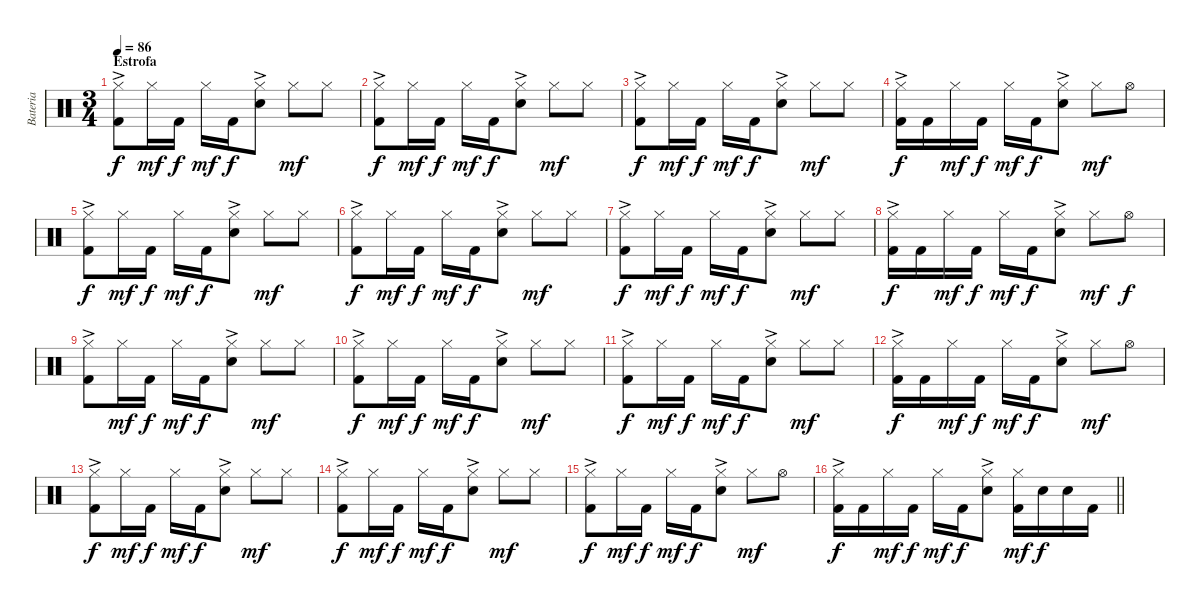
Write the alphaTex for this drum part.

\track ("Bateria" "Bateria") {instrument percussion}
\staff {score}
\articulation defaults
\ts (3 4)
\section ("" "Estrofa")
\tempo 86
\clef neutral
\ks c
("Hi-Hat (closed)"{ac} "Kick (hit) 2").8{dy f} "Hi-Hat (closed)".16{dy mf} "Kick (hit) 2".16{dy f} "Hi-Hat (closed)".16{dy mf} "Kick (hit) 2".16{dy f} ("Hi-Hat (closed)"{ac} "Snare (hit) 2").8 "Hi-Hat (closed)".8{dy mf} "Hi-Hat (closed)".8 |
("Hi-Hat (closed)"{ac} "Kick (hit) 2").8{dy f} "Hi-Hat (closed)".16{dy mf} "Kick (hit) 2".16{dy f} "Hi-Hat (closed)".16{dy mf} "Kick (hit) 2".16{dy f} ("Hi-Hat (closed)"{ac} "Snare (hit) 2").8 "Hi-Hat (closed)".8{dy mf} "Hi-Hat (closed)".8 |
("Hi-Hat (closed)"{ac} "Kick (hit) 2").8{dy f} "Hi-Hat (closed)".16{dy mf} "Kick (hit) 2".16{dy f} "Hi-Hat (closed)".16{dy mf} "Kick (hit) 2".16{dy f} ("Hi-Hat (closed)"{ac} "Snare (hit) 2").8 "Hi-Hat (closed)".8{dy mf} "Hi-Hat (closed)".8 |
("Hi-Hat (closed)"{ac} "Kick (hit) 2").16{dy f} "Kick (hit) 2".16 "Hi-Hat (closed)".16{dy mf} "Kick (hit) 2".16{dy f} "Hi-Hat (closed)".16{dy mf} "Kick (hit) 2".16{dy f} ("Hi-Hat (closed)"{ac} "Snare (hit) 2").8 "Hi-Hat (closed)".8{dy mf} "Hi-Hat (open)".8 |
("Hi-Hat (closed)"{ac} "Kick (hit) 2").8{dy f} "Hi-Hat (closed)".16{dy mf} "Kick (hit) 2".16{dy f} "Hi-Hat (closed)".16{dy mf} "Kick (hit) 2".16{dy f} ("Hi-Hat (closed)"{ac} "Snare (hit) 2").8 "Hi-Hat (closed)".8{dy mf} "Hi-Hat (closed)".8 |
("Hi-Hat (closed)"{ac} "Kick (hit) 2").8{dy f} "Hi-Hat (closed)".16{dy mf} "Kick (hit) 2".16{dy f} "Hi-Hat (closed)".16{dy mf} "Kick (hit) 2".16{dy f} ("Hi-Hat (closed)"{ac} "Snare (hit) 2").8 "Hi-Hat (closed)".8{dy mf} "Hi-Hat (closed)".8 |
("Hi-Hat (closed)"{ac} "Kick (hit) 2").8{dy f} "Hi-Hat (closed)".16{dy mf} "Kick (hit) 2".16{dy f} "Hi-Hat (closed)".16{dy mf} "Kick (hit) 2".16{dy f} ("Hi-Hat (closed)"{ac} "Snare (hit) 2").8 "Hi-Hat (closed)".8{dy mf} "Hi-Hat (closed)".8 |
("Hi-Hat (closed)"{ac} "Kick (hit) 2").16{dy f} "Kick (hit) 2".16 "Hi-Hat (closed)".16{dy mf} "Kick (hit) 2".16{dy f} "Hi-Hat (closed)".16{dy mf} "Kick (hit) 2".16{dy f} ("Hi-Hat (closed)"{ac} "Snare (hit) 2").8 "Hi-Hat (closed)".8{dy mf} "Hi-Hat (open)".8{dy f} |
("Hi-Hat (closed)"{ac} "Kick (hit) 2").8 "Hi-Hat (closed)".16{dy mf} "Kick (hit) 2".16{dy f} "Hi-Hat (closed)".16{dy mf} "Kick (hit) 2".16{dy f} ("Hi-Hat (closed)"{ac} "Snare (hit) 2").8 "Hi-Hat (closed)".8{dy mf} "Hi-Hat (closed)".8 |
("Hi-Hat (closed)"{ac} "Kick (hit) 2").8{dy f} "Hi-Hat (closed)".16{dy mf} "Kick (hit) 2".16{dy f} "Hi-Hat (closed)".16{dy mf} "Kick (hit) 2".16{dy f} ("Hi-Hat (closed)"{ac} "Snare (hit) 2").8 "Hi-Hat (closed)".8{dy mf} "Hi-Hat (closed)".8 |
("Hi-Hat (closed)"{ac} "Kick (hit) 2").8{dy f} "Hi-Hat (closed)".16{dy mf} "Kick (hit) 2".16{dy f} "Hi-Hat (closed)".16{dy mf} "Kick (hit) 2".16{dy f} ("Hi-Hat (closed)"{ac} "Snare (hit) 2").8 "Hi-Hat (closed)".8{dy mf} "Hi-Hat (closed)".8 |
("Hi-Hat (closed)"{ac} "Kick (hit) 2").16{dy f} "Kick (hit) 2".16 "Hi-Hat (closed)".16{dy mf} "Kick (hit) 2".16{dy f} "Hi-Hat (closed)".16{dy mf} "Kick (hit) 2".16{dy f} ("Hi-Hat (closed)"{ac} "Snare (hit) 2").8 "Hi-Hat (closed)".8{dy mf} "Hi-Hat (open)".8 |
("Hi-Hat (closed)"{ac} "Kick (hit) 2").8{dy f} "Hi-Hat (closed)".16{dy mf} "Kick (hit) 2".16{dy f} "Hi-Hat (closed)".16{dy mf} "Kick (hit) 2".16{dy f} ("Hi-Hat (closed)"{ac} "Snare (hit) 2").8 "Hi-Hat (closed)".8{dy mf} "Hi-Hat (closed)".8 |
("Hi-Hat (closed)"{ac} "Kick (hit) 2").8{dy f} "Hi-Hat (closed)".16{dy mf} "Kick (hit) 2".16{dy f} "Hi-Hat (closed)".16{dy mf} "Kick (hit) 2".16{dy f} ("Hi-Hat (closed)"{ac} "Snare (hit) 2").8 "Hi-Hat (closed)".8{dy mf} "Hi-Hat (closed)".8 |
("Hi-Hat (closed)"{ac} "Kick (hit) 2").8{dy f} "Hi-Hat (closed)".16{dy mf} "Kick (hit) 2".16{dy f} "Hi-Hat (closed)".16{dy mf} "Kick (hit) 2".16{dy f} ("Hi-Hat (closed)"{ac} "Snare (hit) 2").8 "Hi-Hat (closed)".8{dy mf} "Hi-Hat (open)".8 |
\barLineRight lightlight
("Hi-Hat (closed)"{ac} "Kick (hit) 2").16{dy f} "Kick (hit) 2".16 "Hi-Hat (closed)".16{dy mf} "Kick (hit) 2".16{dy f} "Hi-Hat (closed)".16{dy mf} "Kick (hit) 2".16{dy f} ("Hi-Hat (closed)"{ac} "Snare (hit) 2").8 ("Hi-Hat (closed)" "Kick (hit) 2").16{dy mf} "Snare (hit) 2".16{dy f} "Snare (hit) 2".16 "Kick (hit) 2".16
